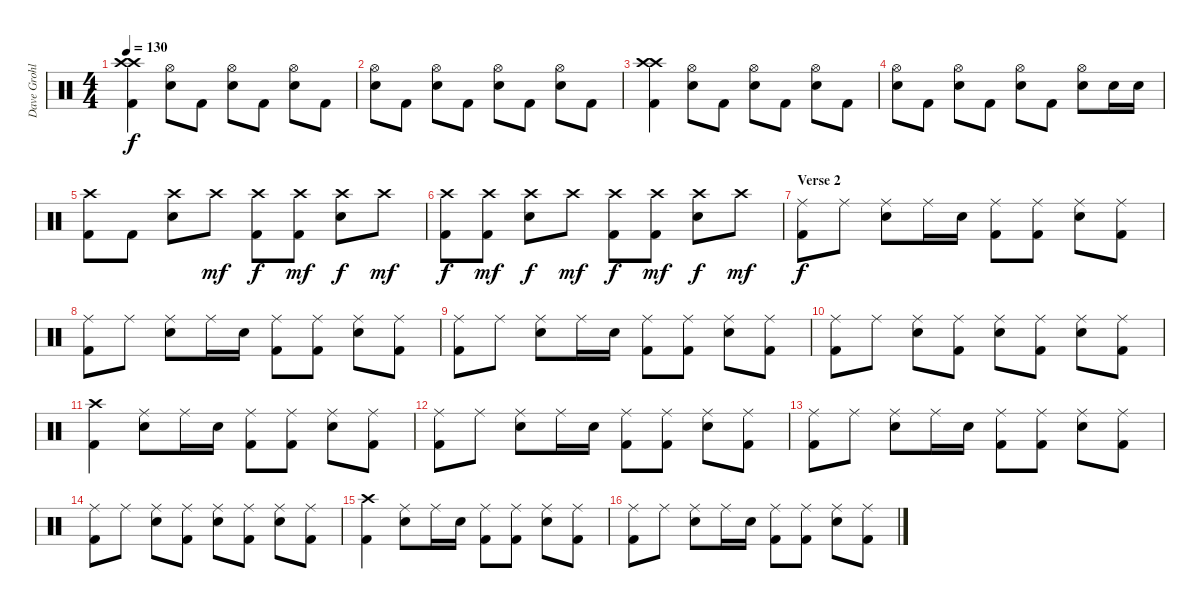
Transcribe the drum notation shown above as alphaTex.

\track ("Dave Grohl" "Dave Grohl") {instrument percussion}
\staff {score}
\articulation defaults
\ts (4 4)
\tempo 130
\clef neutral
\ks c
("Crash high (hit)" "Crash high (hit)" "Kick (hit) 2").4{dy f} ("Hi-Hat (open)" "Electric Snare (hit)").8 "Kick (hit) 2".8 ("Hi-Hat (open)" "Electric Snare (hit)").8 "Kick (hit) 2".8 ("Hi-Hat (open)" "Electric Snare (hit)").8 "Kick (hit) 2".8 |
("Hi-Hat (open)" "Electric Snare (hit)").8 "Kick (hit) 2".8 ("Hi-Hat (open)" "Electric Snare (hit)").8 "Kick (hit) 2".8 ("Hi-Hat (open)" "Electric Snare (hit)").8 "Kick (hit) 2".8 ("Hi-Hat (open)" "Electric Snare (hit)").8 "Kick (hit) 2".8 |
("Crash high (hit)" "Crash high (hit)" "Kick (hit) 2").4 ("Hi-Hat (open)" "Electric Snare (hit)").8 "Kick (hit) 2".8 ("Hi-Hat (open)" "Electric Snare (hit)").8 "Kick (hit) 2".8 ("Hi-Hat (open)" "Electric Snare (hit)").8 "Kick (hit) 2".8 |
("Hi-Hat (open)" "Electric Snare (hit)").8 "Kick (hit) 2".8 ("Hi-Hat (open)" "Electric Snare (hit)").8 "Kick (hit) 2".8 ("Hi-Hat (open)" "Electric Snare (hit)").8 "Kick (hit) 2".8 ("Hi-Hat (open)" "Electric Snare (hit)").8 "Electric Snare (hit)".16 "Electric Snare (hit)".16 |
("Crash high (hit)" "Kick (hit) 2").8 "Kick (hit) 2".8 ("Crash high (hit)" "Electric Snare (hit)").8 "Crash high (hit)".8{dy mf} ("Crash high (hit)" "Kick (hit) 2").8{dy f} ("Crash high (hit)" "Kick (hit) 2").8{dy mf} ("Crash high (hit)" "Electric Snare (hit)").8{dy f} "Crash high (hit)".8{dy mf} |
("Crash high (hit)" "Kick (hit) 2").8{dy f} ("Crash high (hit)" "Kick (hit) 2").8{dy mf} ("Crash high (hit)" "Electric Snare (hit)").8{dy f} "Crash high (hit)".8{dy mf} ("Crash high (hit)" "Kick (hit) 2").8{dy f} ("Crash high (hit)" "Kick (hit) 2").8{dy mf} ("Crash high (hit)" "Electric Snare (hit)").8{dy f} "Crash high (hit)".8{dy mf} |
\section ("" "Verse 2")
("Ride (middle)" "Kick (hit) 2").8{dy f} "Ride (middle)".8 ("Ride (middle)" "Electric Snare (hit)").8 "Ride (middle)".16 "Electric Snare (hit)".16 ("Ride (middle)" "Kick (hit) 2").8 ("Ride (middle)" "Kick (hit) 2").8 ("Ride (middle)" "Electric Snare (hit)").8 ("Ride (middle)" "Kick (hit) 2").8 |
("Ride (middle)" "Kick (hit) 2").8 "Ride (middle)".8 ("Ride (middle)" "Electric Snare (hit)").8 "Ride (middle)".16 "Electric Snare (hit)".16 ("Ride (middle)" "Kick (hit) 2").8 ("Ride (middle)" "Kick (hit) 2").8 ("Ride (middle)" "Electric Snare (hit)").8 ("Ride (middle)" "Kick (hit) 2").8 |
("Ride (middle)" "Kick (hit) 2").8 "Ride (middle)".8 ("Ride (middle)" "Electric Snare (hit)").8 "Ride (middle)".16 "Electric Snare (hit)".16 ("Ride (middle)" "Kick (hit) 2").8 ("Ride (middle)" "Kick (hit) 2").8 ("Ride (middle)" "Electric Snare (hit)").8 ("Ride (middle)" "Kick (hit) 2").8 |
("Ride (middle)" "Kick (hit) 2").8 "Ride (middle)".8 ("Ride (middle)" "Electric Snare (hit)").8 ("Ride (middle)" "Kick (hit) 2").8 ("Ride (middle)" "Electric Snare (hit)").8 ("Ride (middle)" "Kick (hit) 2").8 ("Ride (middle)" "Electric Snare (hit)").8 ("Ride (middle)" "Kick (hit) 2").8 |
("Crash high (hit)" "Kick (hit) 2").4 ("Ride (middle)" "Electric Snare (hit)").8 "Ride (middle)".16 "Electric Snare (hit)".16 ("Ride (middle)" "Kick (hit) 2").8 ("Ride (middle)" "Kick (hit) 2").8 ("Ride (middle)" "Electric Snare (hit)").8 ("Ride (middle)" "Kick (hit) 2").8 |
("Ride (middle)" "Kick (hit) 2").8 "Ride (middle)".8 ("Ride (middle)" "Electric Snare (hit)").8 "Ride (middle)".16 "Electric Snare (hit)".16 ("Ride (middle)" "Kick (hit) 2").8 ("Ride (middle)" "Kick (hit) 2").8 ("Ride (middle)" "Electric Snare (hit)").8 ("Ride (middle)" "Kick (hit) 2").8 |
("Ride (middle)" "Kick (hit) 2").8 "Ride (middle)".8 ("Ride (middle)" "Electric Snare (hit)").8 "Ride (middle)".16 "Electric Snare (hit)".16 ("Ride (middle)" "Kick (hit) 2").8 ("Ride (middle)" "Kick (hit) 2").8 ("Ride (middle)" "Electric Snare (hit)").8 ("Ride (middle)" "Kick (hit) 2").8 |
("Ride (middle)" "Kick (hit) 2").8 "Ride (middle)".8 ("Ride (middle)" "Electric Snare (hit)").8 ("Ride (middle)" "Kick (hit) 2").8 ("Ride (middle)" "Electric Snare (hit)").8 ("Ride (middle)" "Kick (hit) 2").8 ("Ride (middle)" "Electric Snare (hit)").8 ("Ride (middle)" "Kick (hit) 2").8 |
("Crash high (hit)" "Kick (hit) 2").4 ("Ride (middle)" "Electric Snare (hit)").8 "Ride (middle)".16 "Electric Snare (hit)".16 ("Ride (middle)" "Kick (hit) 2").8 ("Ride (middle)" "Kick (hit) 2").8 ("Ride (middle)" "Electric Snare (hit)").8 ("Ride (middle)" "Kick (hit) 2").8 |
("Ride (middle)" "Kick (hit) 2").8 "Ride (middle)".8 ("Ride (middle)" "Electric Snare (hit)").8 "Ride (middle)".16 "Electric Snare (hit)".16 ("Ride (middle)" "Kick (hit) 2").8 ("Ride (middle)" "Kick (hit) 2").8 ("Ride (middle)" "Electric Snare (hit)").8 ("Ride (middle)" "Kick (hit) 2").8
